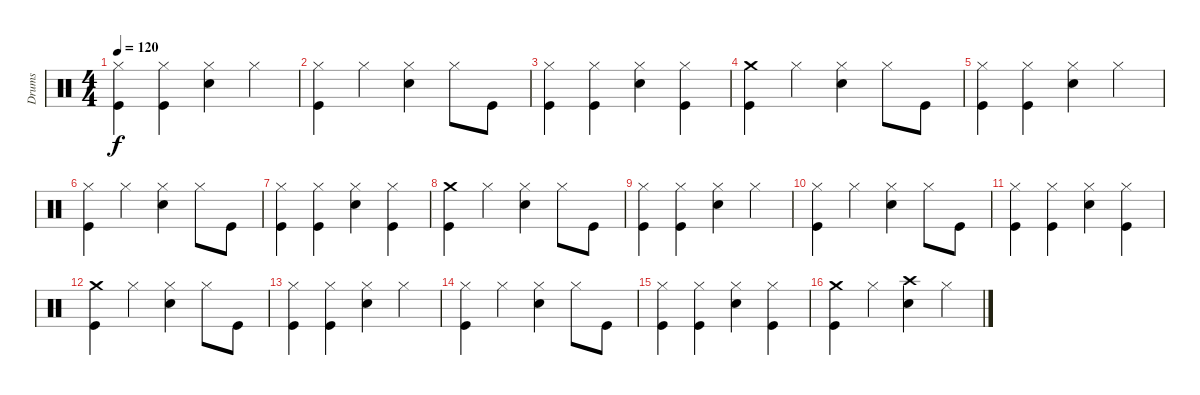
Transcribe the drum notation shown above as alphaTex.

\track ("Drums" "Drums") {instrument percussion}
\staff {score}
\articulation defaults
\ts (4 4)
\tempo 120
\clef neutral
\ks c
("Hi-Hat (closed)" "Kick (hit)").4{dy f} ("Hi-Hat (closed)" "Kick (hit)").4 ("Hi-Hat (closed)" "Snare (hit) 2").4 "Hi-Hat (closed)".4 |
("Hi-Hat (closed)" "Kick (hit)").4 "Hi-Hat (closed)".4 ("Hi-Hat (closed)" "Snare (hit) 2").4 "Hi-Hat (closed)".8 "Kick (hit)".8 |
("Hi-Hat (closed)" "Kick (hit)").4 ("Hi-Hat (closed)" "Kick (hit)").4 ("Hi-Hat (closed)" "Snare (hit) 2").4 ("Hi-Hat (closed)" "Kick (hit)").4 |
("Crash medium (hit)" "Kick (hit)").4 "Hi-Hat (closed)".4 ("Hi-Hat (closed)" "Snare (hit) 2").4 "Hi-Hat (closed)".8 "Kick (hit)".8 |
("Hi-Hat (closed)" "Kick (hit)").4 ("Hi-Hat (closed)" "Kick (hit)").4 ("Hi-Hat (closed)" "Snare (hit) 2").4 "Hi-Hat (closed)".4 |
("Hi-Hat (closed)" "Kick (hit)").4 "Hi-Hat (closed)".4 ("Hi-Hat (closed)" "Snare (hit) 2").4 "Hi-Hat (closed)".8 "Kick (hit)".8 |
("Hi-Hat (closed)" "Kick (hit)").4 ("Hi-Hat (closed)" "Kick (hit)").4 ("Hi-Hat (closed)" "Snare (hit) 2").4 ("Hi-Hat (closed)" "Kick (hit)").4 |
("Crash medium (hit)" "Kick (hit)").4 "Hi-Hat (closed)".4 ("Hi-Hat (closed)" "Snare (hit) 2").4 "Hi-Hat (closed)".8 "Kick (hit)".8 |
("Hi-Hat (closed)" "Kick (hit)").4 ("Hi-Hat (closed)" "Kick (hit)").4 ("Hi-Hat (closed)" "Snare (hit) 2").4 "Hi-Hat (closed)".4 |
("Hi-Hat (closed)" "Kick (hit)").4 "Hi-Hat (closed)".4 ("Hi-Hat (closed)" "Snare (hit) 2").4 "Hi-Hat (closed)".8 "Kick (hit)".8 |
("Hi-Hat (closed)" "Kick (hit)").4 ("Hi-Hat (closed)" "Kick (hit)").4 ("Hi-Hat (closed)" "Snare (hit) 2").4 ("Hi-Hat (closed)" "Kick (hit)").4 |
("Crash medium (hit)" "Kick (hit)").4 "Hi-Hat (closed)".4 ("Hi-Hat (closed)" "Snare (hit) 2").4 "Hi-Hat (closed)".8 "Kick (hit)".8 |
("Hi-Hat (closed)" "Kick (hit)").4 ("Hi-Hat (closed)" "Kick (hit)").4 ("Hi-Hat (closed)" "Snare (hit) 2").4 "Hi-Hat (closed)".4 |
("Hi-Hat (closed)" "Kick (hit)").4 "Hi-Hat (closed)".4 ("Hi-Hat (closed)" "Snare (hit) 2").4 "Hi-Hat (closed)".8 "Kick (hit)".8 |
("Hi-Hat (closed)" "Kick (hit)").4 ("Hi-Hat (closed)" "Kick (hit)").4 ("Hi-Hat (closed)" "Snare (hit) 2").4 ("Hi-Hat (closed)" "Kick (hit)").4 |
("Crash medium (hit)" "Kick (hit)").4 "Hi-Hat (closed)".4 ("Crash high (hit)" "Snare (hit) 2").4 "Hi-Hat (closed)".4
